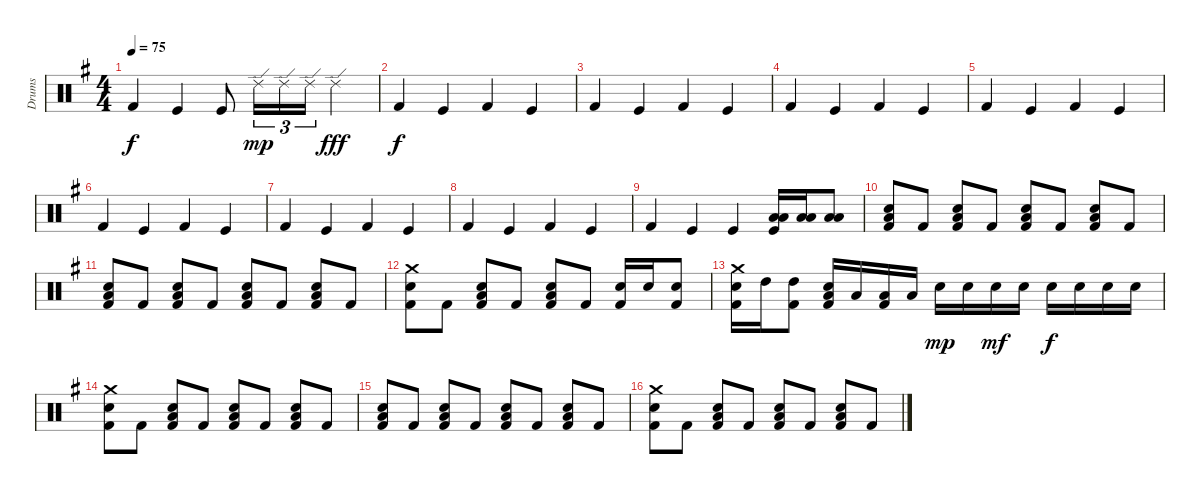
\track ("Drums " "Drums ") {instrument percussion}
\staff {score}
\articulation defaults
\ts (4 4)
\tempo 75
\clef neutral
\ks eminor "Kick (hit) 2".4{dy f} "Kick (hit)".4 "Kick (hit)".8 "Ride (edge) 2".16{tu (3 2) dy mp} "Ride (edge) 2".16{tu (3 2)} "Ride (edge) 2".16{tu (3 2)} "Ride (edge) 2".4{dy fff}
|
"Kick (hit) 2".4{dy f} "Kick (hit)".4 "Kick (hit) 2".4 "Kick (hit)".4 |
"Kick (hit) 2".4 "Kick (hit)".4 "Kick (hit) 2".4 "Kick (hit)".4 |
"Kick (hit) 2".4 "Kick (hit)".4 "Kick (hit) 2".4 "Kick (hit)".4 |
"Kick (hit) 2".4 "Kick (hit)".4 "Kick (hit) 2".4 "Kick (hit)".4 |
"Kick (hit) 2".4 "Kick (hit)".4 "Kick (hit) 2".4 "Kick (hit)".4 |
"Kick (hit) 2".4 "Kick (hit)".4 "Kick (hit) 2".4 "Kick (hit)".4 |
"Kick (hit) 2".4 "Kick (hit)".4 "Kick (hit) 2".4 "Kick (hit)".4 |
"Kick (hit) 2".4 "Kick (hit)".4 "Kick (hit)".4 ("Low Tom (hit)" "Low Floor Tom (hit)" "Kick (hit)").16 ("Low Tom (hit)" "Low Tom (hit)").16 ("Low Tom (hit)" "Low Tom (hit)").8 |
("Electric Snare (hit)" "Low Floor Tom (hit)" "Kick (hit) 2").8 "Kick (hit) 2".8 ("Electric Snare (hit)" "Low Floor Tom (hit)" "Kick (hit) 2").8 "Kick (hit) 2".8 ("Electric Snare (hit)" "Low Floor Tom (hit)" "Kick (hit) 2").8 "Kick (hit) 2".8 ("Electric Snare (hit)" "Low Floor Tom (hit)" "Kick (hit) 2").8 "Kick (hit) 2".8 |
("Electric Snare (hit)" "Low Floor Tom (hit)" "Kick (hit) 2").8 "Kick (hit) 2".8 ("Electric Snare (hit)" "Low Floor Tom (hit)" "Kick (hit) 2").8 "Kick (hit) 2".8 ("Electric Snare (hit)" "Low Floor Tom (hit)" "Kick (hit) 2").8 "Kick (hit) 2".8 ("Electric Snare (hit)" "Low Floor Tom (hit)" "Kick (hit) 2").8 "Kick (hit) 2".8 |
("Crash medium (hit)" "Electric Snare (hit)" "Kick (hit) 2").8 "Kick (hit) 2".8 ("Electric Snare (hit)" "Low Floor Tom (hit)" "Kick (hit) 2").8 "Kick (hit) 2".8 ("Electric Snare (hit)" "Low Floor Tom (hit)" "Kick (hit) 2").8 "Kick (hit) 2".8 ("Snare (hit) 2" "Kick (hit) 2").16 "Snare (hit) 2".16 ("Snare (hit) 2" "Kick (hit) 2").8 |
("Crash medium (hit)" "Electric Snare (hit)" "Kick (hit) 2").16 "High Tom (hit)".16 ("High Tom (hit)" "Kick (hit) 2").8 ("Electric Snare (hit)" "Low Floor Tom (hit)" "Kick (hit) 2").16 "Low Floor Tom (hit)".16 ("Low Floor Tom (hit)" "Kick (hit) 2").16 "Low Floor Tom (hit)".16 "Electric Snare (hit)".16{dy mp} "Electric Snare (hit)".16 "Electric Snare (hit)".16{dy mf} "Electric Snare (hit)".16 "Electric Snare (hit)".16{dy f} "Electric Snare (hit)".16 "Electric Snare (hit)".16 "Electric Snare (hit)".16 |
("Crash medium (hit)" "Electric Snare (hit)" "Kick (hit) 2").8 "Kick (hit) 2".8 ("Electric Snare (hit)" "Low Floor Tom (hit)" "Kick (hit) 2").8 "Kick (hit) 2".8 ("Electric Snare (hit)" "Low Floor Tom (hit)" "Kick (hit) 2").8 "Kick (hit) 2".8 ("Electric Snare (hit)" "Low Floor Tom (hit)" "Kick (hit) 2").8 "Kick (hit) 2".8 |
("Electric Snare (hit)" "Low Floor Tom (hit)" "Kick (hit) 2").8 "Kick (hit) 2".8 ("Electric Snare (hit)" "Low Floor Tom (hit)" "Kick (hit) 2").8 "Kick (hit) 2".8 ("Electric Snare (hit)" "Low Floor Tom (hit)" "Kick (hit) 2").8 "Kick (hit) 2".8 ("Electric Snare (hit)" "Low Floor Tom (hit)" "Kick (hit) 2").8 "Kick (hit) 2".8 |
("Crash medium (hit)" "Electric Snare (hit)" "Kick (hit) 2").8 "Kick (hit) 2".8 ("Electric Snare (hit)" "Low Floor Tom (hit)" "Kick (hit) 2").8 "Kick (hit) 2".8 ("Electric Snare (hit)" "Low Floor Tom (hit)" "Kick (hit) 2").8 "Kick (hit) 2".8 ("Electric Snare (hit)" "Low Floor Tom (hit)" "Kick (hit) 2").8 "Kick (hit) 2".8
